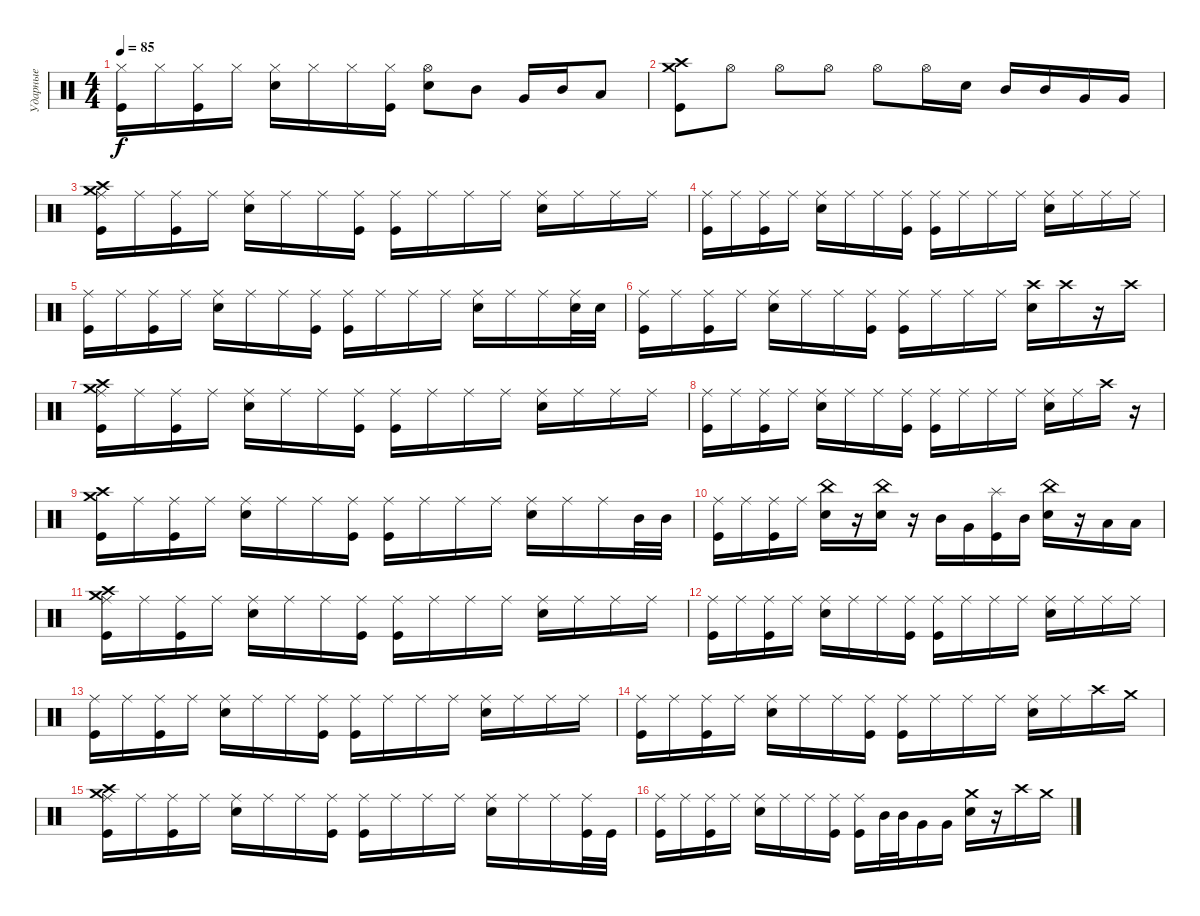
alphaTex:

\track ("Ударные" "Ударные") {instrument percussion}
\staff {score}
\articulation defaults
\ts (4 4)
\tempo 85
\clef neutral
\ks c
("Hi-Hat (closed)" "Kick (hit)").16{dy f} "Hi-Hat (closed)".16 ("Hi-Hat (closed)" "Kick (hit)").16 "Hi-Hat (closed)".16 ("Hi-Hat (closed)" "Electric Snare (hit)").16 "Hi-Hat (closed)".16 "Hi-Hat (closed)".16 ("Hi-Hat (closed)" "Kick (hit)").16 ("Hi-Hat (open)" "Electric Snare (hit)").8 "Mid Tom (hit)".8 "Very Low Tom (hit)".16 "Mid Tom (hit)".16 "Low Floor Tom (hit)".8 |
("Crash medium (hit)" "Crash high (hit)" "Kick (hit)").8 "Hi-Hat (open)".8 "Hi-Hat (open)".8 "Hi-Hat (open)".8 "Hi-Hat (open)".8 "Hi-Hat (open)".16 "Electric Snare (hit)".16 "Mid Tom (hit)".16 "Mid Tom (hit)".16 "Very Low Tom (hit)".16 "Very Low Tom (hit)".16 |
("Crash high (hit)" "Crash medium (hit)" "Ride (middle)" "Kick (hit)").16 "Ride (middle)".16 ("Ride (middle)" "Kick (hit)").16 "Ride (middle)".16 ("Ride (middle)" "Electric Snare (hit)").16 "Ride (middle)".16 "Ride (middle)".16 ("Ride (middle)" "Kick (hit)").16 ("Ride (middle)" "Kick (hit)").16 "Ride (middle)".16 "Ride (middle)".16 "Ride (middle)".16 ("Ride (middle)" "Electric Snare (hit)").16 "Ride (middle)".16 "Ride (middle)".16 "Ride (middle)".16 |
("Ride (middle)" "Kick (hit)").16 "Ride (middle)".16 ("Ride (middle)" "Kick (hit)").16 "Ride (middle)".16 ("Ride (middle)" "Electric Snare (hit)").16 "Ride (middle)".16 "Ride (middle)".16 ("Ride (middle)" "Kick (hit)").16 ("Ride (middle)" "Kick (hit)").16 "Ride (middle)".16 "Ride (middle)".16 "Ride (middle)".16 ("Ride (middle)" "Electric Snare (hit)").16 "Ride (middle)".16 "Ride (middle)".16 "Ride (middle)".16 |
("Ride (middle)" "Kick (hit)").16 "Ride (middle)".16 ("Ride (middle)" "Kick (hit)").16 "Ride (middle)".16 ("Ride (middle)" "Electric Snare (hit)").16 "Ride (middle)".16 "Ride (middle)".16 ("Ride (middle)" "Kick (hit)").16 ("Ride (middle)" "Kick (hit)").16 "Ride (middle)".16 "Ride (middle)".16 "Ride (middle)".16 ("Ride (middle)" "Electric Snare (hit)").16 "Ride (middle)".16 "Ride (middle)".16 ("Ride (middle)" "Electric Snare (hit)").32 "Electric Snare (hit)".32 |
("Ride (middle)" "Kick (hit)").16 "Ride (middle)".16 ("Ride (middle)" "Kick (hit)").16 "Ride (middle)".16 ("Ride (middle)" "Electric Snare (hit)").16 "Ride (middle)".16 "Ride (middle)".16 ("Ride (middle)" "Kick (hit)").16 ("Ride (middle)" "Kick (hit)").16 "Ride (middle)".16 "Ride (middle)".16 "Ride (middle)".16 ("Crash high (hit)" "Electric Snare (hit)").16 "Crash high (hit)".16 r.16 "Crash high (hit)".16 |
("Crash high (hit)" "Crash medium (hit)" "Ride (middle)" "Kick (hit)").16 "Ride (middle)".16 ("Ride (middle)" "Kick (hit)").16 "Ride (middle)".16 ("Ride (middle)" "Electric Snare (hit)").16 "Ride (middle)".16 "Ride (middle)".16 ("Ride (middle)" "Kick (hit)").16 ("Ride (middle)" "Kick (hit)").16 "Ride (middle)".16 "Ride (middle)".16 "Ride (middle)".16 ("Ride (middle)" "Electric Snare (hit)").16 "Ride (middle)".16 "Ride (middle)".16 "Ride (middle)".16 |
("Ride (middle)" "Kick (hit)").16 "Ride (middle)".16 ("Ride (middle)" "Kick (hit)").16 "Ride (middle)".16 ("Ride (middle)" "Electric Snare (hit)").16 "Ride (middle)".16 "Ride (middle)".16 ("Ride (middle)" "Kick (hit)").16 ("Ride (middle)" "Kick (hit)").16 "Ride (middle)".16 "Ride (middle)".16 "Ride (middle)".16 ("Ride (middle)" "Electric Snare (hit)").16 "Ride (middle)".16 "Crash high (hit)".16 r.16 |
("Crash medium (hit)" "Crash high (hit)" "Kick (hit)").16 "Ride (middle)".16 ("Ride (middle)" "Kick (hit)").16 "Ride (middle)".16 ("Ride (middle)" "Electric Snare (hit)").16 "Ride (middle)".16 "Ride (middle)".16 ("Ride (middle)" "Kick (hit)").16 ("Ride (middle)" "Kick (hit)").16 "Ride (middle)".16 "Ride (middle)".16 "Ride (middle)".16 ("Ride (middle)" "Electric Snare (hit)").16 "Ride (middle)".16 "Ride (middle)".16 "Mid Tom (hit)".32 "Mid Tom (hit)".32 |
("Ride (middle)" "Kick (hit)").16 "Ride (middle)".16 ("Ride (middle)" "Kick (hit)").16 "Ride (middle)".16 ("China (hit)" "Electric Snare (hit)").16 r.16 ("China (hit)" "Electric Snare (hit)").16 r.16 "Mid Tom (hit)".16 "Very Low Tom (hit)".16 ("Splash (hit)" "Kick (hit)").16 "Mid Tom (hit)".16 ("China (hit)" "Electric Snare (hit)").16 r.16 "Low Floor Tom (hit)".16 "Low Floor Tom (hit)".16 |
("Crash high (hit)" "Crash medium (hit)" "Ride (middle)" "Kick (hit)").16 "Ride (middle)".16 ("Ride (middle)" "Kick (hit)").16 "Ride (middle)".16 ("Ride (middle)" "Electric Snare (hit)").16 "Ride (middle)".16 "Ride (middle)".16 ("Ride (middle)" "Kick (hit)").16 ("Ride (middle)" "Kick (hit)").16 "Ride (middle)".16 "Ride (middle)".16 "Ride (middle)".16 ("Ride (middle)" "Electric Snare (hit)").16 "Ride (middle)".16 "Ride (middle)".16 "Ride (middle)".16 |
("Ride (middle)" "Kick (hit)").16 "Ride (middle)".16 ("Ride (middle)" "Kick (hit)").16 "Ride (middle)".16 ("Ride (middle)" "Electric Snare (hit)").16 "Ride (middle)".16 "Ride (middle)".16 ("Ride (middle)" "Kick (hit)").16 ("Ride (middle)" "Kick (hit)").16 "Ride (middle)".16 "Ride (middle)".16 "Ride (middle)".16 ("Ride (middle)" "Electric Snare (hit)").16 "Ride (middle)".16 "Ride (middle)".16 "Ride (middle)".16 |
("Ride (middle)" "Kick (hit)").16 "Ride (middle)".16 ("Ride (middle)" "Kick (hit)").16 "Ride (middle)".16 ("Ride (middle)" "Electric Snare (hit)").16 "Ride (middle)".16 "Ride (middle)".16 ("Ride (middle)" "Kick (hit)").16 ("Ride (middle)" "Kick (hit)").16 "Ride (middle)".16 "Ride (middle)".16 "Ride (middle)".16 ("Ride (middle)" "Electric Snare (hit)").16 "Ride (middle)".16 "Ride (middle)".16 "Ride (middle)".16 |
("Ride (middle)" "Kick (hit)").16 "Ride (middle)".16 ("Ride (middle)" "Kick (hit)").16 "Ride (middle)".16 ("Ride (middle)" "Electric Snare (hit)").16 "Ride (middle)".16 "Ride (middle)".16 ("Ride (middle)" "Kick (hit)").16 ("Ride (middle)" "Kick (hit)").16 "Ride (middle)".16 "Ride (middle)".16 "Ride (middle)".16 ("Ride (middle)" "Electric Snare (hit)").16 "Ride (middle)".16 "Crash high (hit)".16 "Crash medium (hit)".16 |
("Crash high (hit)" "Crash medium (hit)" "Ride (middle)" "Kick (hit)").16 "Ride (middle)".16 ("Ride (middle)" "Kick (hit)").16 "Ride (middle)".16 ("Ride (middle)" "Electric Snare (hit)").16 "Ride (middle)".16 "Ride (middle)".16 ("Ride (middle)" "Kick (hit)").16 ("Ride (middle)" "Kick (hit)").16 "Ride (middle)".16 "Ride (middle)".16 "Ride (middle)".16 ("Ride (middle)" "Electric Snare (hit)").16 "Ride (middle)".16 "Ride (middle)".16 ("Ride (middle)" "Kick (hit)").32 "Kick (hit)".32 |
("Ride (middle)" "Kick (hit)").16 "Ride (middle)".16 ("Ride (middle)" "Kick (hit)").16 "Ride (middle)".16 ("Ride (middle)" "Electric Snare (hit)").16 "Ride (middle)".16 "Ride (middle)".16 ("Ride (middle)" "Kick (hit)").16 ("Ride (middle)" "Kick (hit)").16 "Mid Tom (hit)".32 "Mid Tom (hit)".32 "Very Low Tom (hit)".16 "Very Low Tom (hit)".16 ("Crash medium (hit)" "Electric Snare (hit)").16 r.16 "Crash high (hit)".16 "Crash medium (hit)".16
